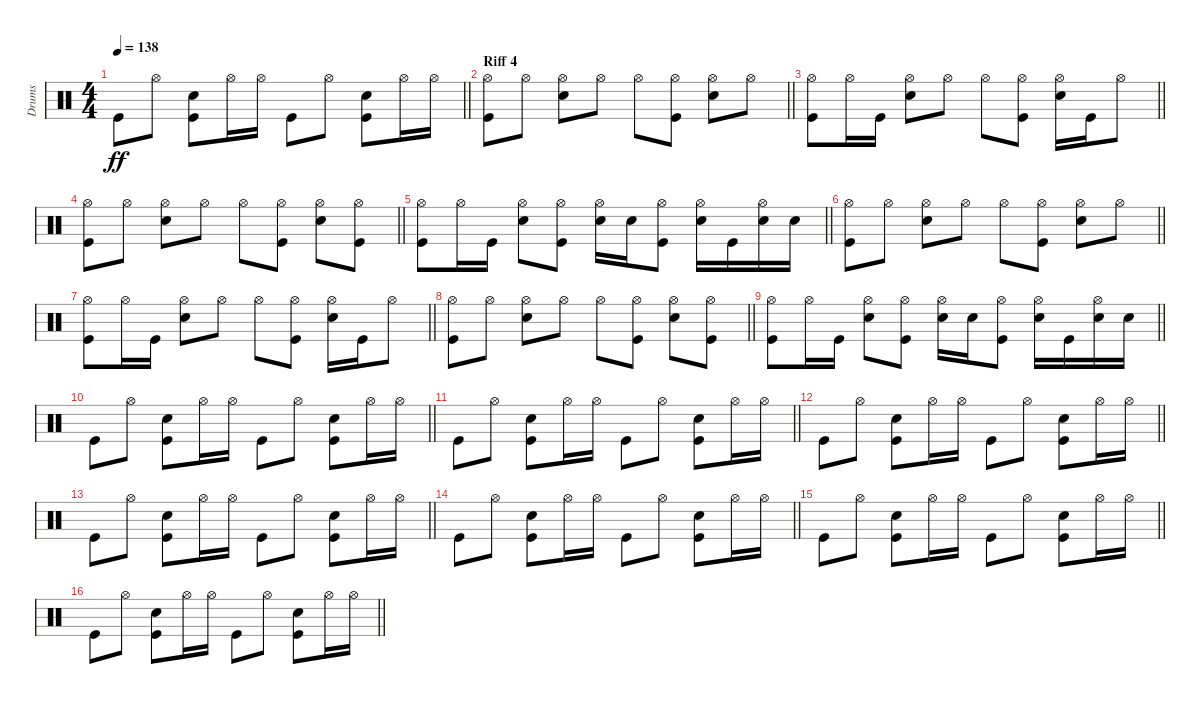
\track ("Drums" "Drums") {instrument percussion}
\staff {score}
\articulation defaults
\ts (4 4)
\tempo 138
\clef neutral
\barLineRight lightlight
\ks c "Kick (hit)".8{dy ff} "Hi-Hat (open)".8
("Kick (hit)" "Snare (hit) 2").8 "Hi-Hat (open)".16 "Hi-Hat (open)".16 "Kick (hit)".8 "Hi-Hat (open)".8 ("Kick (hit)" "Snare (hit) 2").8 "Hi-Hat (open)".16 "Hi-Hat (open)".16 |
\section ("" "Riff 4")
\barLineRight lightlight
("Kick (hit)" "Hi-Hat (open)").8 "Hi-Hat (open)".8 ("Snare (hit) 2" "Hi-Hat (open)").8 "Hi-Hat (open)".8 "Hi-Hat (open)".8 ("Kick (hit)" "Hi-Hat (open)").8 ("Snare (hit) 2" "Hi-Hat (open)").8 "Hi-Hat (open)".8 |
\barLineRight lightlight
("Kick (hit)" "Hi-Hat (open)").8 "Hi-Hat (open)".16 "Kick (hit)".16 ("Snare (hit) 2" "Hi-Hat (open)").8 "Hi-Hat (open)".8 "Hi-Hat (open)".8 ("Kick (hit)" "Hi-Hat (open)").8 ("Snare (hit) 2" "Hi-Hat (open)").16 "Kick (hit)".16 "Hi-Hat (open)".8 |
\barLineRight lightlight
("Kick (hit)" "Hi-Hat (open)").8 "Hi-Hat (open)".8 ("Snare (hit) 2" "Hi-Hat (open)").8 "Hi-Hat (open)".8 "Hi-Hat (open)".8 ("Kick (hit)" "Hi-Hat (open)").8 ("Snare (hit) 2" "Hi-Hat (open)").8 ("Kick (hit)" "Hi-Hat (open)").8 |
\barLineRight lightlight
("Kick (hit)" "Hi-Hat (open)").8 "Hi-Hat (open)".16 "Kick (hit)".16 ("Snare (hit) 2" "Hi-Hat (open)").8 ("Kick (hit)" "Hi-Hat (open)").8 ("Snare (hit) 2" "Hi-Hat (open)").16 "Snare (hit) 2".16 ("Kick (hit)" "Hi-Hat (open)").8 ("Snare (hit) 2" "Hi-Hat (open)").16 "Kick (hit)".16 ("Snare (hit) 2" "Hi-Hat (open)").16 "Snare (hit) 2".16 |
\barLineRight lightlight
("Kick (hit)" "Hi-Hat (open)").8 "Hi-Hat (open)".8 ("Snare (hit) 2" "Hi-Hat (open)").8 "Hi-Hat (open)".8 "Hi-Hat (open)".8 ("Kick (hit)" "Hi-Hat (open)").8 ("Snare (hit) 2" "Hi-Hat (open)").8 "Hi-Hat (open)".8 |
\barLineRight lightlight
("Kick (hit)" "Hi-Hat (open)").8 "Hi-Hat (open)".16 "Kick (hit)".16 ("Snare (hit) 2" "Hi-Hat (open)").8 "Hi-Hat (open)".8 "Hi-Hat (open)".8 ("Kick (hit)" "Hi-Hat (open)").8 ("Snare (hit) 2" "Hi-Hat (open)").16 "Kick (hit)".16 "Hi-Hat (open)".8 |
\barLineRight lightlight
("Kick (hit)" "Hi-Hat (open)").8 "Hi-Hat (open)".8 ("Snare (hit) 2" "Hi-Hat (open)").8 "Hi-Hat (open)".8 "Hi-Hat (open)".8 ("Kick (hit)" "Hi-Hat (open)").8 ("Snare (hit) 2" "Hi-Hat (open)").8 ("Kick (hit)" "Hi-Hat (open)").8 |
\barLineRight lightlight
("Kick (hit)" "Hi-Hat (open)").8 "Hi-Hat (open)".16 "Kick (hit)".16 ("Snare (hit) 2" "Hi-Hat (open)").8 ("Kick (hit)" "Hi-Hat (open)").8 ("Snare (hit) 2" "Hi-Hat (open)").16 "Snare (hit) 2".16 ("Kick (hit)" "Hi-Hat (open)").8 ("Snare (hit) 2" "Hi-Hat (open)").16 "Kick (hit)".16 ("Snare (hit) 2" "Hi-Hat (open)").16 "Snare (hit) 2".16 |
\barLineRight lightlight "Kick (hit)".8 "Hi-Hat (open)".8
("Kick (hit)" "Snare (hit) 2").8 "Hi-Hat (open)".16 "Hi-Hat (open)".16 "Kick (hit)".8 "Hi-Hat (open)".8 ("Kick (hit)" "Snare (hit) 2").8 "Hi-Hat (open)".16 "Hi-Hat (open)".16 |
\barLineRight lightlight "Kick (hit)".8 "Hi-Hat (open)".8
("Kick (hit)" "Snare (hit) 2").8 "Hi-Hat (open)".16 "Hi-Hat (open)".16 "Kick (hit)".8 "Hi-Hat (open)".8 ("Kick (hit)" "Snare (hit) 2").8 "Hi-Hat (open)".16 "Hi-Hat (open)".16 |
\barLineRight lightlight "Kick (hit)".8 "Hi-Hat (open)".8
("Kick (hit)" "Snare (hit) 2").8 "Hi-Hat (open)".16 "Hi-Hat (open)".16 "Kick (hit)".8 "Hi-Hat (open)".8 ("Kick (hit)" "Snare (hit) 2").8 "Hi-Hat (open)".16 "Hi-Hat (open)".16 |
\barLineRight lightlight "Kick (hit)".8 "Hi-Hat (open)".8
("Kick (hit)" "Snare (hit) 2").8 "Hi-Hat (open)".16 "Hi-Hat (open)".16 "Kick (hit)".8 "Hi-Hat (open)".8 ("Kick (hit)" "Snare (hit) 2").8 "Hi-Hat (open)".16 "Hi-Hat (open)".16 |
\barLineRight lightlight "Kick (hit)".8 "Hi-Hat (open)".8
("Kick (hit)" "Snare (hit) 2").8 "Hi-Hat (open)".16 "Hi-Hat (open)".16 "Kick (hit)".8 "Hi-Hat (open)".8 ("Kick (hit)" "Snare (hit) 2").8 "Hi-Hat (open)".16 "Hi-Hat (open)".16 |
\barLineRight lightlight "Kick (hit)".8 "Hi-Hat (open)".8
("Kick (hit)" "Snare (hit) 2").8 "Hi-Hat (open)".16 "Hi-Hat (open)".16 "Kick (hit)".8 "Hi-Hat (open)".8 ("Kick (hit)" "Snare (hit) 2").8 "Hi-Hat (open)".16 "Hi-Hat (open)".16 |
\barLineRight lightlight "Kick (hit)".8 "Hi-Hat (open)".8
("Kick (hit)" "Snare (hit) 2").8 "Hi-Hat (open)".16 "Hi-Hat (open)".16 "Kick (hit)".8 "Hi-Hat (open)".8 ("Kick (hit)" "Snare (hit) 2").8 "Hi-Hat (open)".16 "Hi-Hat (open)".16
